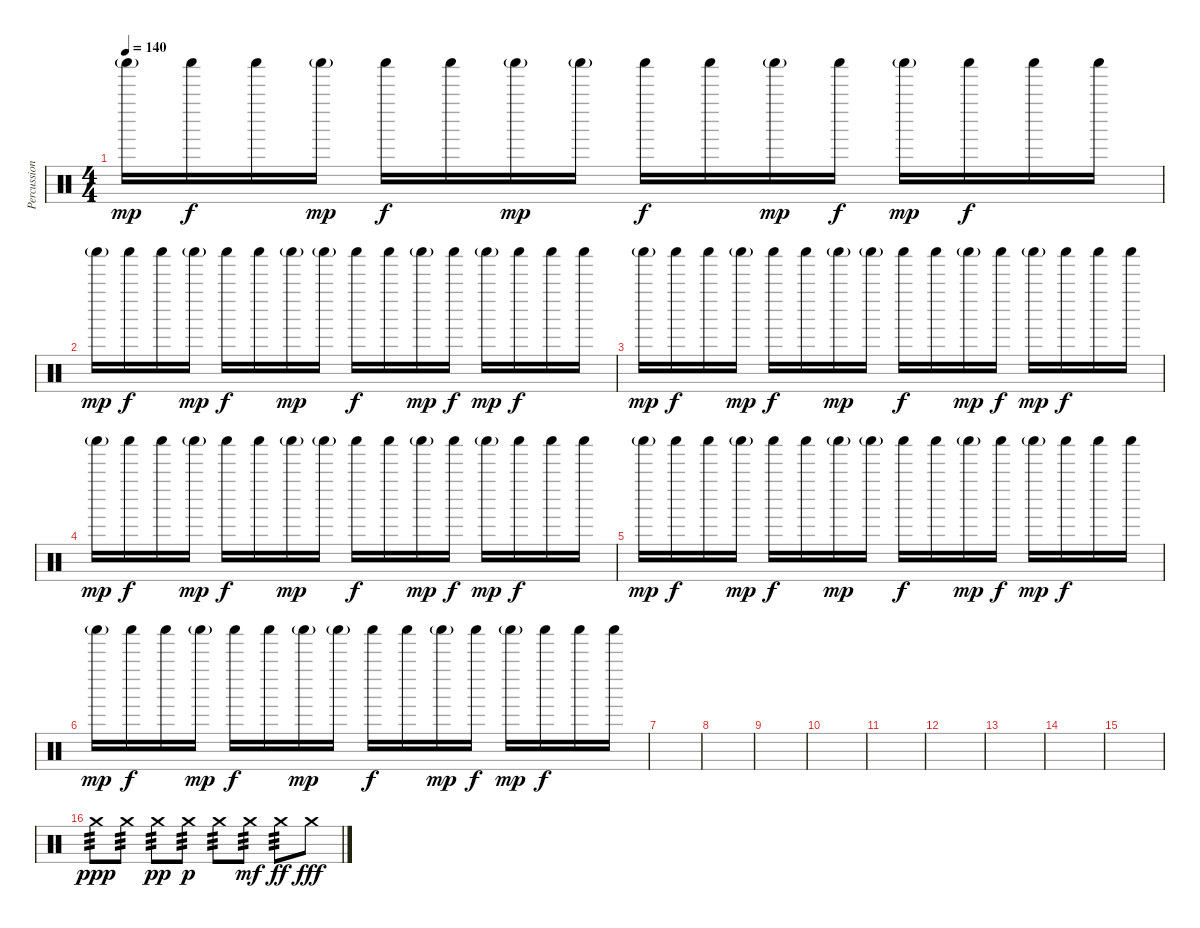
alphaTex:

\track ("Percussion" "Percussion") {instrument percussion}
\staff {score}
\articulation defaults
\ts (4 4)
\tempo 140
\clef neutral
\ks c "Shaker (hit)"{g}.16{dy mp} "Shaker (hit)".16{dy f} "Shaker (hit)".16 "Shaker (hit)"{g}.16{dy mp} "Shaker (hit)".16{dy f} "Shaker (hit)".16 "Shaker (hit)"{g}.16{dy mp} "Shaker (hit)"{g}.16 "Shaker (hit)".16{dy f} "Shaker (hit)".16 "Shaker (hit)"{g}.16{dy mp} "Shaker (hit)".16{dy f} "Shaker (hit)"{g}.16{dy mp} "Shaker (hit)".16{dy f} "Shaker (hit)".16 "Shaker (hit)".16
|
"Shaker (hit)"{g}.16{dy mp} "Shaker (hit)".16{dy f} "Shaker (hit)".16 "Shaker (hit)"{g}.16{dy mp} "Shaker (hit)".16{dy f} "Shaker (hit)".16 "Shaker (hit)"{g}.16{dy mp} "Shaker (hit)"{g}.16 "Shaker (hit)".16{dy f} "Shaker (hit)".16 "Shaker (hit)"{g}.16{dy mp} "Shaker (hit)".16{dy f} "Shaker (hit)"{g}.16{dy mp} "Shaker (hit)".16{dy f} "Shaker (hit)".16 "Shaker (hit)".16 |
"Shaker (hit)"{g}.16{dy mp} "Shaker (hit)".16{dy f} "Shaker (hit)".16 "Shaker (hit)"{g}.16{dy mp} "Shaker (hit)".16{dy f} "Shaker (hit)".16 "Shaker (hit)"{g}.16{dy mp} "Shaker (hit)"{g}.16 "Shaker (hit)".16{dy f} "Shaker (hit)".16 "Shaker (hit)"{g}.16{dy mp} "Shaker (hit)".16{dy f} "Shaker (hit)"{g}.16{dy mp} "Shaker (hit)".16{dy f} "Shaker (hit)".16 "Shaker (hit)".16 |
"Shaker (hit)"{g}.16{dy mp} "Shaker (hit)".16{dy f} "Shaker (hit)".16 "Shaker (hit)"{g}.16{dy mp} "Shaker (hit)".16{dy f} "Shaker (hit)".16 "Shaker (hit)"{g}.16{dy mp} "Shaker (hit)"{g}.16 "Shaker (hit)".16{dy f} "Shaker (hit)".16 "Shaker (hit)"{g}.16{dy mp} "Shaker (hit)".16{dy f} "Shaker (hit)"{g}.16{dy mp} "Shaker (hit)".16{dy f} "Shaker (hit)".16 "Shaker (hit)".16 |
"Shaker (hit)"{g}.16{dy mp} "Shaker (hit)".16{dy f} "Shaker (hit)".16 "Shaker (hit)"{g}.16{dy mp} "Shaker (hit)".16{dy f} "Shaker (hit)".16 "Shaker (hit)"{g}.16{dy mp} "Shaker (hit)"{g}.16 "Shaker (hit)".16{dy f} "Shaker (hit)".16 "Shaker (hit)"{g}.16{dy mp} "Shaker (hit)".16{dy f} "Shaker (hit)"{g}.16{dy mp} "Shaker (hit)".16{dy f} "Shaker (hit)".16 "Shaker (hit)".16 |
"Shaker (hit)"{g}.16{dy mp} "Shaker (hit)".16{dy f} "Shaker (hit)".16 "Shaker (hit)"{g}.16{dy mp} "Shaker (hit)".16{dy f} "Shaker (hit)".16 "Shaker (hit)"{g}.16{dy mp} "Shaker (hit)"{g}.16 "Shaker (hit)".16{dy f} "Shaker (hit)".16 "Shaker (hit)"{g}.16{dy mp} "Shaker (hit)".16{dy f} "Shaker (hit)"{g}.16{dy mp} "Shaker (hit)".16{dy f} "Shaker (hit)".16 "Shaker (hit)".16 |
|
|
|
|
|
|
|
|
|
"Crash medium (hit)".8{tp 3 dy ppp} "Crash medium (hit)".8{tp 3} "Crash medium (hit)".8{tp 3 dy pp} "Crash medium (hit)".8{tp 3 dy p} "Crash medium (hit)".8{tp 3} "Crash medium (hit)".8{tp 3 dy mf} "Crash medium (hit)".8{tp 3 dy ff} "Crash medium (hit)".8{dy fff}
